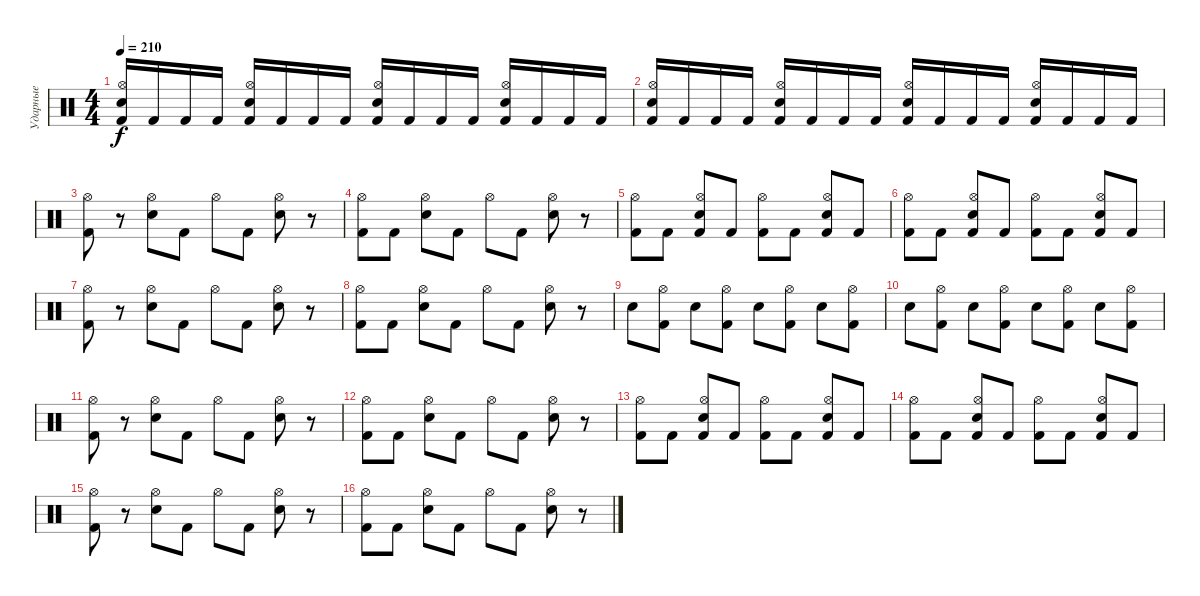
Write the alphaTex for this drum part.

\track ("Ударные" "Ударные") {instrument percussion}
\staff {score}
\articulation defaults
\ts (4 4)
\tempo 210
\clef neutral
\ks c
("Kick (hit) 2" "Hi-Hat (open)" "Electric Snare (hit)").16{dy f} "Kick (hit) 2".16 "Kick (hit) 2".16 "Kick (hit) 2".16 ("Kick (hit) 2" "Electric Snare (hit)" "Hi-Hat (open)").16 "Kick (hit) 2".16 "Kick (hit) 2".16 "Kick (hit) 2".16 ("Kick (hit) 2" "Hi-Hat (open)" "Electric Snare (hit)").16 "Kick (hit) 2".16 "Kick (hit) 2".16 "Kick (hit) 2".16 ("Kick (hit) 2" "Electric Snare (hit)" "Hi-Hat (open)").16 "Kick (hit) 2".16 "Kick (hit) 2".16 "Kick (hit) 2".16 |
("Kick (hit) 2" "Hi-Hat (open)" "Electric Snare (hit)").16 "Kick (hit) 2".16 "Kick (hit) 2".16 "Kick (hit) 2".16 ("Kick (hit) 2" "Electric Snare (hit)" "Hi-Hat (open)").16 "Kick (hit) 2".16 "Kick (hit) 2".16 "Kick (hit) 2".16 ("Kick (hit) 2" "Hi-Hat (open)" "Electric Snare (hit)").16 "Kick (hit) 2".16 "Kick (hit) 2".16 "Kick (hit) 2".16 ("Kick (hit) 2" "Electric Snare (hit)" "Hi-Hat (open)").16 "Kick (hit) 2".16 "Kick (hit) 2".16 "Kick (hit) 2".16 |
("Kick (hit) 2" "Hi-Hat (open)").8 r.8 ("Electric Snare (hit)" "Hi-Hat (open)").8 "Kick (hit) 2".8 "Hi-Hat (open)".8 "Kick (hit) 2".8 ("Electric Snare (hit)" "Hi-Hat (open)").8 r.8 |
("Kick (hit) 2" "Hi-Hat (open)").8 "Kick (hit) 2".8 ("Electric Snare (hit)" "Hi-Hat (open)").8 "Kick (hit) 2".8 "Hi-Hat (open)".8 "Kick (hit) 2".8 ("Electric Snare (hit)" "Hi-Hat (open)").8 r.8 |
("Kick (hit) 2" "Hi-Hat (open)").8 "Kick (hit) 2".8 ("Kick (hit) 2" "Electric Snare (hit)" "Hi-Hat (open)").8 "Kick (hit) 2".8 ("Kick (hit) 2" "Hi-Hat (open)").8 "Kick (hit) 2".8 ("Kick (hit) 2" "Electric Snare (hit)" "Hi-Hat (open)").8 "Kick (hit) 2".8 |
("Kick (hit) 2" "Hi-Hat (open)").8 "Kick (hit) 2".8 ("Kick (hit) 2" "Electric Snare (hit)" "Hi-Hat (open)").8 "Kick (hit) 2".8 ("Kick (hit) 2" "Hi-Hat (open)").8 "Kick (hit) 2".8 ("Kick (hit) 2" "Electric Snare (hit)" "Hi-Hat (open)").8 "Kick (hit) 2".8 |
("Kick (hit) 2" "Hi-Hat (open)").8 r.8 ("Electric Snare (hit)" "Hi-Hat (open)").8 "Kick (hit) 2".8 "Hi-Hat (open)".8 "Kick (hit) 2".8 ("Electric Snare (hit)" "Hi-Hat (open)").8 r.8 |
("Kick (hit) 2" "Hi-Hat (open)").8 "Kick (hit) 2".8 ("Electric Snare (hit)" "Hi-Hat (open)").8 "Kick (hit) 2".8 "Hi-Hat (open)".8 "Kick (hit) 2".8 ("Electric Snare (hit)" "Hi-Hat (open)").8 r.8 |
"Electric Snare (hit)".8 ("Kick (hit) 2" "Hi-Hat (open)").8 "Electric Snare (hit)".8 ("Kick (hit) 2" "Hi-Hat (open)").8 "Electric Snare (hit)".8 ("Kick (hit) 2" "Hi-Hat (open)").8 "Electric Snare (hit)".8 ("Kick (hit) 2" "Hi-Hat (open)").8 |
"Electric Snare (hit)".8 ("Kick (hit) 2" "Hi-Hat (open)").8 "Electric Snare (hit)".8 ("Kick (hit) 2" "Hi-Hat (open)").8 "Electric Snare (hit)".8 ("Kick (hit) 2" "Hi-Hat (open)").8 "Electric Snare (hit)".8 ("Kick (hit) 2" "Hi-Hat (open)").8 |
("Kick (hit) 2" "Hi-Hat (open)").8 r.8 ("Electric Snare (hit)" "Hi-Hat (open)").8 "Kick (hit) 2".8 "Hi-Hat (open)".8 "Kick (hit) 2".8 ("Electric Snare (hit)" "Hi-Hat (open)").8 r.8 |
("Kick (hit) 2" "Hi-Hat (open)").8 "Kick (hit) 2".8 ("Electric Snare (hit)" "Hi-Hat (open)").8 "Kick (hit) 2".8 "Hi-Hat (open)".8 "Kick (hit) 2".8 ("Electric Snare (hit)" "Hi-Hat (open)").8 r.8 |
("Kick (hit) 2" "Hi-Hat (open)").8 "Kick (hit) 2".8 ("Kick (hit) 2" "Electric Snare (hit)" "Hi-Hat (open)").8 "Kick (hit) 2".8 ("Kick (hit) 2" "Hi-Hat (open)").8 "Kick (hit) 2".8 ("Kick (hit) 2" "Electric Snare (hit)" "Hi-Hat (open)").8 "Kick (hit) 2".8 |
("Kick (hit) 2" "Hi-Hat (open)").8 "Kick (hit) 2".8 ("Kick (hit) 2" "Electric Snare (hit)" "Hi-Hat (open)").8 "Kick (hit) 2".8 ("Kick (hit) 2" "Hi-Hat (open)").8 "Kick (hit) 2".8 ("Kick (hit) 2" "Electric Snare (hit)" "Hi-Hat (open)").8 "Kick (hit) 2".8 |
("Kick (hit) 2" "Hi-Hat (open)").8 r.8 ("Electric Snare (hit)" "Hi-Hat (open)").8 "Kick (hit) 2".8 "Hi-Hat (open)".8 "Kick (hit) 2".8 ("Electric Snare (hit)" "Hi-Hat (open)").8 r.8 |
("Kick (hit) 2" "Hi-Hat (open)").8 "Kick (hit) 2".8 ("Electric Snare (hit)" "Hi-Hat (open)").8 "Kick (hit) 2".8 "Hi-Hat (open)".8 "Kick (hit) 2".8 ("Electric Snare (hit)" "Hi-Hat (open)").8 r.8
